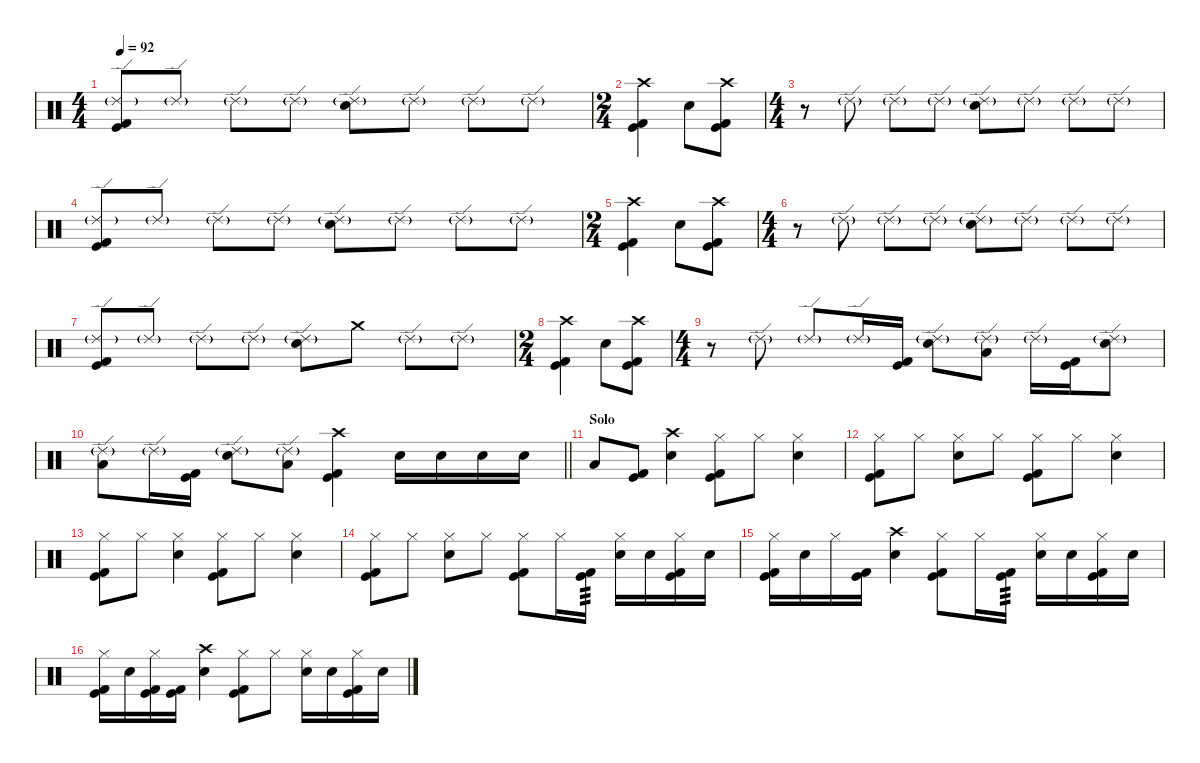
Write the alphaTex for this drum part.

\defaultSystemsLayout 4
\hideDynamics
\bracketExtendMode nobrackets
\singleTrackTrackNamePolicy hidden
\multiTrackTrackNamePolicy hidden
\otherSystemsTrackNameOrientation horizontal
\track ("Lars" "drm.") {instrument percussion}
\staff {score}
\articulation defaults
\ts (4 4)
\tempo 92
\clef neutral
\ks c
("Ride (edge) 2"{g} "Kick (hit)" "Kick (hit) 2").8{dy f beam Up} "Ride (edge) 2"{g}.8{dy mf beam Up} "Ride (edge) 2"{g}.8{beam Down} "Ride (edge) 2"{g}.8{beam Down} ("Ride (edge) 2"{g} "Snare (hit) 2").8{dy f beam Down} "Ride (edge) 2"{g}.8{dy mf beam Down} "Ride (edge) 2"{g}.8{beam Down} "Ride (edge) 2"{g}.8{beam Down} |
\ts (2 4)
\beaming (8 2 2 2 2)
("Crash high (hit)" "Kick (hit)" "Kick (hit) 2").4{dy f beam Down} "Snare (hit) 2".8{beam Down} ("Crash high (hit)" "Kick (hit)" "Kick (hit) 2").8{beam Down} |
\ts (4 4)
\beaming (8 2 2 2 2)
r.8{beam Down} "Ride (edge) 2"{g}.8{dy mf beam Down} "Ride (edge) 2"{g}.8{beam Down} "Ride (edge) 2"{g}.8{beam Down} ("Ride (edge) 2"{g} "Snare (hit) 2").8{dy f beam Down} "Ride (edge) 2"{g}.8{dy mf beam Down} "Ride (edge) 2"{g}.8{beam Down} "Ride (edge) 2"{g}.8{beam Down} |
("Ride (edge) 2"{g} "Kick (hit)" "Kick (hit) 2").8{dy f beam Up} "Ride (edge) 2"{g}.8{dy mf beam Up} "Ride (edge) 2"{g}.8{beam Down} "Ride (edge) 2"{g}.8{beam Down} ("Ride (edge) 2"{g} "Snare (hit) 2").8{dy f beam Down} "Ride (edge) 2"{g}.8{dy mf beam Down} "Ride (edge) 2"{g}.8{beam Down} "Ride (edge) 2"{g}.8{beam Down} |
\ts (2 4)
\beaming (8 2 2 2 2)
("Crash high (hit)" "Kick (hit)" "Kick (hit) 2").4{dy f beam Down} "Snare (hit) 2".8{beam Down} ("Crash high (hit)" "Kick (hit)" "Kick (hit) 2").8{beam Down} |
\ts (4 4)
\beaming (8 2 2 2 2)
r.8{beam Down} "Ride (edge) 2"{g}.8{dy mf beam Down} "Ride (edge) 2"{g}.8{beam Down} "Ride (edge) 2"{g}.8{beam Down} ("Ride (edge) 2"{g} "Snare (hit) 2").8{dy f beam Down} "Ride (edge) 2"{g}.8{dy mf beam Down} "Ride (edge) 2"{g}.8{beam Down} "Ride (edge) 2"{g}.8{beam Down} |
("Ride (edge) 2"{g} "Kick (hit)" "Kick (hit) 2").8{dy f beam Up} "Ride (edge) 2"{g}.8{dy mf beam Up} "Ride (edge) 2"{g}.8{beam Down} "Ride (edge) 2"{g}.8{beam Down} ("Ride (edge) 2"{g} "Snare (hit) 2").8{dy f beam Down} "Crash medium (hit)".8{beam Down} "Ride (edge) 2"{g}.8{dy mf beam Down} "Ride (edge) 2"{g}.8{beam Down} |
\ts (2 4)
\beaming (8 2 2 2 2)
("Crash high (hit)" "Kick (hit)" "Kick (hit) 2").4{dy f beam Down} "Snare (hit) 2".8{beam Down} ("Crash high (hit)" "Kick (hit)" "Kick (hit) 2").8{beam Down} |
\ts (4 4)
\beaming (8 2 2 2 2)
r.8{beam Down} "Ride (edge) 2"{g}.8{dy mf beam Down} "Ride (edge) 2"{g}.8{beam Up} "Ride (edge) 2"{g}.16{beam Up} ("Kick (hit)" "Kick (hit) 2").16{dy f beam Up} ("Ride (edge) 2"{g} "Snare (hit) 2").8{beam Down} ("Ride (edge) 2"{g} "Low Tom (hit)").8{beam Down} "Ride (edge) 2"{g}.16{dy mf beam Down} ("Kick (hit)" "Kick (hit) 2").16{dy f beam Down} ("Ride (edge) 2"{g} "Snare (hit) 2").8{beam Down} |
\barLineRight lightlight
("Ride (edge) 2"{g} "Low Tom (hit)").8{beam Down} "Ride (edge) 2"{g}.16{dy mf beam Down} ("Kick (hit)" "Kick (hit) 2").16{dy f beam Down} ("Ride (edge) 2"{g} "Snare (hit) 2").8{beam Down} ("Ride (edge) 2"{g} "Low Tom (hit)").8{beam Down} ("Crash high (hit)" "Kick (hit)" "Kick (hit) 2").4{beam Down} "Snare (hit) 2".16{beam Down} "Snare (hit) 2".16{beam Down} "Snare (hit) 2".16{beam Down} "Snare (hit) 2".16{beam Down} |
\section ("" "Solo")
"Low Tom (hit)".8{beam Up} ("Kick (hit)" "Kick (hit) 2").8{beam Up} ("Crash high (hit)" "Snare (hit) 2").4{beam Down} ("Hi-Hat (closed)" "Kick (hit)" "Kick (hit) 2").8{beam Down} "Hi-Hat (closed)".8{beam Down} ("Hi-Hat (closed)" "Snare (hit) 2").4{beam Down} |
("Hi-Hat (closed)" "Kick (hit)" "Kick (hit) 2").8{beam Down} "Hi-Hat (closed)".8{beam Down} ("Hi-Hat (closed)" "Snare (hit) 2").8{beam Down} "Hi-Hat (closed)".8{beam Down} ("Hi-Hat (closed)" "Kick (hit)" "Kick (hit) 2").8{beam Down} "Hi-Hat (closed)".8{beam Down} ("Hi-Hat (closed)" "Snare (hit) 2").4{beam Down} |
("Hi-Hat (closed)" "Kick (hit)" "Kick (hit) 2").8{beam Down} "Hi-Hat (closed)".8{beam Down} ("Hi-Hat (closed)" "Snare (hit) 2").4{beam Down} ("Hi-Hat (closed)" "Kick (hit)" "Kick (hit) 2").8{beam Down} "Hi-Hat (closed)".8{beam Down} ("Hi-Hat (closed)" "Snare (hit) 2").4{beam Down} |
("Hi-Hat (closed)" "Kick (hit)" "Kick (hit) 2").8{beam Down} "Hi-Hat (closed)".8{beam Down} ("Hi-Hat (closed)" "Snare (hit) 2").8{beam Down} "Hi-Hat (closed)".8{beam Down} ("Hi-Hat (closed)" "Kick (hit)" "Kick (hit) 2").8{beam Down} "Hi-Hat (closed)".16{beam Down} ("Kick (hit)" "Kick (hit) 2").16{tp 3 beam Down} ("Hi-Hat (closed)" "Snare (hit) 2").16{beam Down} "Snare (hit) 2".16{beam Down} ("Hi-Hat (closed)" "Kick (hit)" "Kick (hit) 2").16{beam Down} "Snare (hit) 2".16{beam Down} |
("Hi-Hat (closed)" "Kick (hit)" "Kick (hit) 2").16{beam Down} "Snare (hit) 2".16{beam Down} "Hi-Hat (closed)".16{beam Down} ("Kick (hit)" "Kick (hit) 2").16{beam Down} ("Crash high (hit)" "Snare (hit) 2").4{beam Down} ("Hi-Hat (closed)" "Kick (hit)" "Kick (hit) 2").8{beam Down} "Hi-Hat (closed)".16{beam Down} ("Kick (hit)" "Kick (hit) 2").16{tp 3 beam Down} ("Hi-Hat (closed)" "Snare (hit) 2").16{beam Down} "Snare (hit) 2".16{beam Down} ("Hi-Hat (closed)" "Kick (hit)" "Kick (hit) 2").16{beam Down} "Snare (hit) 2".16{beam Down} |
("Hi-Hat (closed)" "Kick (hit)" "Kick (hit) 2").16{beam Down} "Snare (hit) 2".16{beam Down} ("Hi-Hat (closed)" "Kick (hit)" "Kick (hit) 2").16{beam Down} ("Kick (hit)" "Kick (hit) 2").16{beam Down} ("Crash high (hit)" "Snare (hit) 2").4{beam Down} ("Hi-Hat (closed)" "Kick (hit)" "Kick (hit) 2").8{beam Down} "Hi-Hat (closed)".8{beam Down} ("Hi-Hat (closed)" "Snare (hit) 2").16{beam Down} "Snare (hit) 2".16{beam Down} ("Hi-Hat (closed)" "Kick (hit)" "Kick (hit) 2").16{beam Down} "Snare (hit) 2".16{beam Down}
